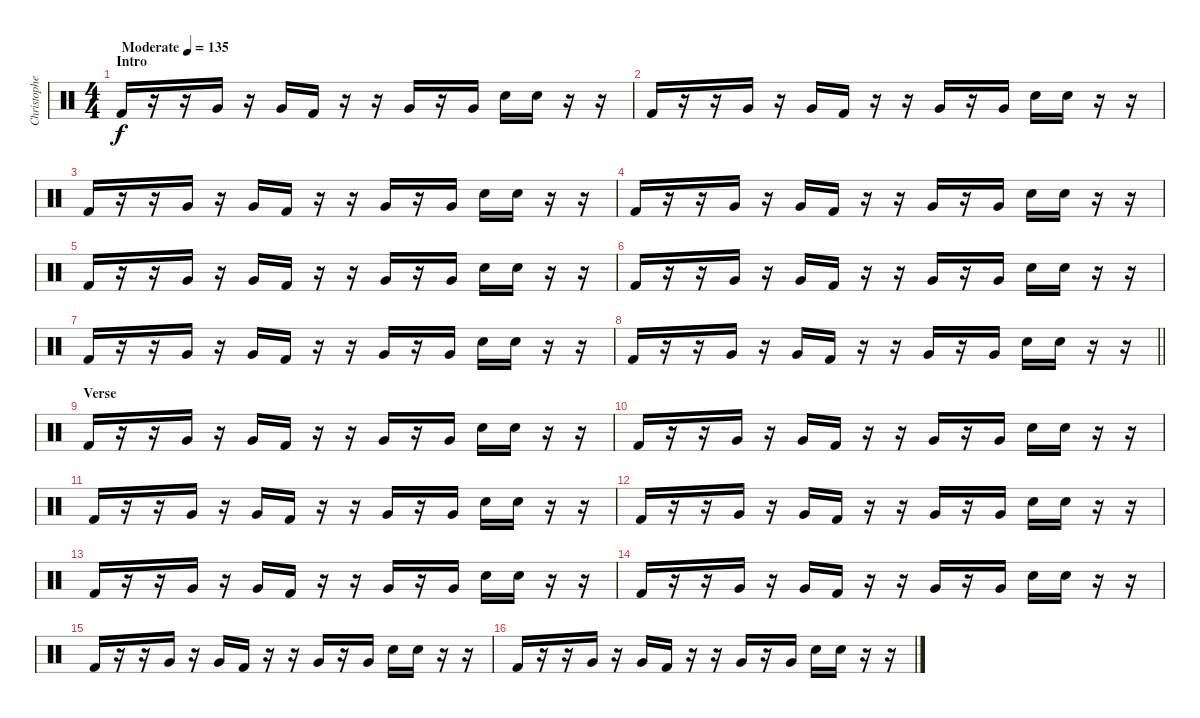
\track ("Christopher - Drums" "Christophe") {instrument percussion}
\staff {score}
\articulation defaults
\ts (4 4)
\section ("" "Intro")
\tempo (135 "Moderate")
\clef neutral
\ks c "Kick (hit) 2".16{dy f}
r.16 r.16 "Very Low Tom (hit)".16 r.16 "Very Low Tom (hit)".16 "Kick (hit) 2".16 r.16 r.16 "Very Low Tom (hit)".16 r.16 "Very Low Tom (hit)".16 "Electric Snare (hit)".16 "Electric Snare (hit)".16 r.16 r.16 |
"Kick (hit) 2".16 r.16 r.16 "Very Low Tom (hit)".16 r.16 "Very Low Tom (hit)".16 "Kick (hit) 2".16 r.16 r.16 "Very Low Tom (hit)".16 r.16 "Very Low Tom (hit)".16 "Electric Snare (hit)".16 "Electric Snare (hit)".16 r.16 r.16 |
"Kick (hit) 2".16 r.16 r.16 "Very Low Tom (hit)".16 r.16 "Very Low Tom (hit)".16 "Kick (hit) 2".16 r.16 r.16 "Very Low Tom (hit)".16 r.16 "Very Low Tom (hit)".16 "Electric Snare (hit)".16 "Electric Snare (hit)".16 r.16 r.16 |
"Kick (hit) 2".16 r.16 r.16 "Very Low Tom (hit)".16 r.16 "Very Low Tom (hit)".16 "Kick (hit) 2".16 r.16 r.16 "Very Low Tom (hit)".16 r.16 "Very Low Tom (hit)".16 "Electric Snare (hit)".16 "Electric Snare (hit)".16 r.16 r.16 |
"Kick (hit) 2".16 r.16 r.16 "Very Low Tom (hit)".16 r.16 "Very Low Tom (hit)".16 "Kick (hit) 2".16 r.16 r.16 "Very Low Tom (hit)".16 r.16 "Very Low Tom (hit)".16 "Electric Snare (hit)".16 "Electric Snare (hit)".16 r.16 r.16 |
"Kick (hit) 2".16 r.16 r.16 "Very Low Tom (hit)".16 r.16 "Very Low Tom (hit)".16 "Kick (hit) 2".16 r.16 r.16 "Very Low Tom (hit)".16 r.16 "Very Low Tom (hit)".16 "Electric Snare (hit)".16 "Electric Snare (hit)".16 r.16 r.16 |
"Kick (hit) 2".16 r.16 r.16 "Very Low Tom (hit)".16 r.16 "Very Low Tom (hit)".16 "Kick (hit) 2".16 r.16 r.16 "Very Low Tom (hit)".16 r.16 "Very Low Tom (hit)".16 "Electric Snare (hit)".16 "Electric Snare (hit)".16 r.16 r.16 |
\barLineRight lightlight "Kick (hit) 2".16
r.16 r.16 "Very Low Tom (hit)".16 r.16 "Very Low Tom (hit)".16 "Kick (hit) 2".16 r.16 r.16 "Very Low Tom (hit)".16 r.16 "Very Low Tom (hit)".16 "Electric Snare (hit)".16 "Electric Snare (hit)".16 r.16 r.16 |
\section ("" "Verse")
"Kick (hit) 2".16 r.16 r.16 "Very Low Tom (hit)".16 r.16 "Very Low Tom (hit)".16 "Kick (hit) 2".16 r.16 r.16 "Very Low Tom (hit)".16 r.16 "Very Low Tom (hit)".16 "Electric Snare (hit)".16 "Electric Snare (hit)".16 r.16 r.16 |
"Kick (hit) 2".16 r.16 r.16 "Very Low Tom (hit)".16 r.16 "Very Low Tom (hit)".16 "Kick (hit) 2".16 r.16 r.16 "Very Low Tom (hit)".16 r.16 "Very Low Tom (hit)".16 "Electric Snare (hit)".16 "Electric Snare (hit)".16 r.16 r.16 |
"Kick (hit) 2".16 r.16 r.16 "Very Low Tom (hit)".16 r.16 "Very Low Tom (hit)".16 "Kick (hit) 2".16 r.16 r.16 "Very Low Tom (hit)".16 r.16 "Very Low Tom (hit)".16 "Electric Snare (hit)".16 "Electric Snare (hit)".16 r.16 r.16 |
"Kick (hit) 2".16 r.16 r.16 "Very Low Tom (hit)".16 r.16 "Very Low Tom (hit)".16 "Kick (hit) 2".16 r.16 r.16 "Very Low Tom (hit)".16 r.16 "Very Low Tom (hit)".16 "Electric Snare (hit)".16 "Electric Snare (hit)".16 r.16 r.16 |
"Kick (hit) 2".16 r.16 r.16 "Very Low Tom (hit)".16 r.16 "Very Low Tom (hit)".16 "Kick (hit) 2".16 r.16 r.16 "Very Low Tom (hit)".16 r.16 "Very Low Tom (hit)".16 "Electric Snare (hit)".16 "Electric Snare (hit)".16 r.16 r.16 |
"Kick (hit) 2".16 r.16 r.16 "Very Low Tom (hit)".16 r.16 "Very Low Tom (hit)".16 "Kick (hit) 2".16 r.16 r.16 "Very Low Tom (hit)".16 r.16 "Very Low Tom (hit)".16 "Electric Snare (hit)".16 "Electric Snare (hit)".16 r.16 r.16 |
"Kick (hit) 2".16 r.16 r.16 "Very Low Tom (hit)".16 r.16 "Very Low Tom (hit)".16 "Kick (hit) 2".16 r.16 r.16 "Very Low Tom (hit)".16 r.16 "Very Low Tom (hit)".16 "Electric Snare (hit)".16 "Electric Snare (hit)".16 r.16 r.16 |
"Kick (hit) 2".16 r.16 r.16 "Very Low Tom (hit)".16 r.16 "Very Low Tom (hit)".16 "Kick (hit) 2".16 r.16 r.16 "Very Low Tom (hit)".16 r.16 "Very Low Tom (hit)".16 "Electric Snare (hit)".16 "Electric Snare (hit)".16 r.16 r.16
